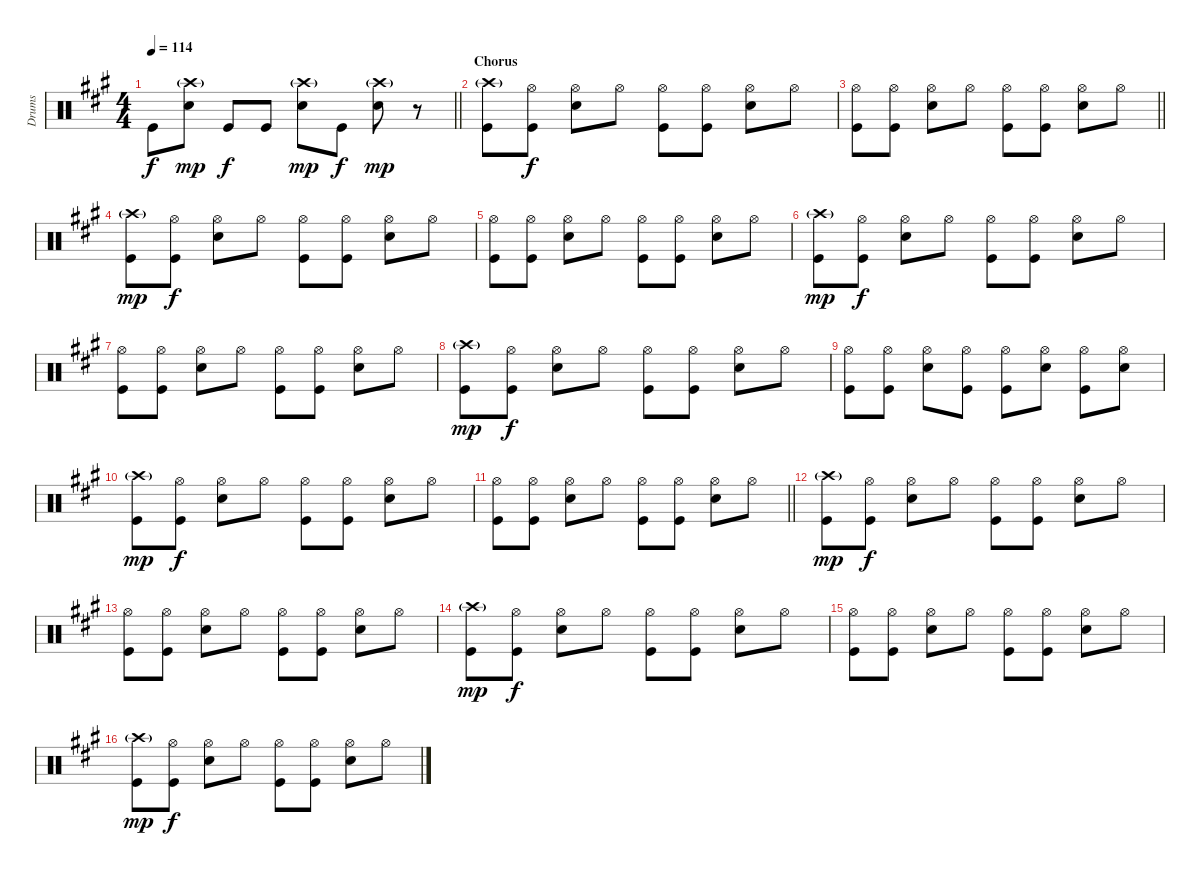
\track ("Drums" "Drums") {instrument percussion}
\staff {score}
\articulation defaults
\ts (4 4)
\tempo 114
\clef neutral
\barLineRight lightlight
\ks f#minor "Kick (hit)".8{dy f}
("Crash high (hit)"{g} "Snare (hit) 2").8{dy mp} "Kick (hit)".8{dy f} "Kick (hit)".8 ("Crash high (hit)"{g} "Snare (hit) 2").8{dy mp} "Kick (hit)".8{dy f} ("Crash high (hit)"{g} "Snare (hit) 2").8{dy mp} r.8 |
\section ("" "Chorus")
("Crash high (hit)"{g} "Kick (hit)").8{volume 16} ("Hi-Hat (open)" "Kick (hit)").8{dy f} ("Hi-Hat (open)" "Snare (hit) 2").8 "Hi-Hat (open)".8 ("Hi-Hat (open)" "Kick (hit)").8 ("Hi-Hat (open)" "Kick (hit)").8 ("Hi-Hat (open)" "Snare (hit) 2").8 "Hi-Hat (open)".8 |
\barLineRight lightlight
("Hi-Hat (open)" "Kick (hit)").8 ("Hi-Hat (open)" "Kick (hit)").8 ("Hi-Hat (open)" "Snare (hit) 2").8 "Hi-Hat (open)".8 ("Hi-Hat (open)" "Kick (hit)").8 ("Hi-Hat (open)" "Kick (hit)").8 ("Hi-Hat (open)" "Snare (hit) 2").8 "Hi-Hat (open)".8 |
("Crash high (hit)"{g} "Kick (hit)").8{dy mp} ("Hi-Hat (open)" "Kick (hit)").8{dy f} ("Hi-Hat (open)" "Snare (hit) 2").8 "Hi-Hat (open)".8 ("Hi-Hat (open)" "Kick (hit)").8 ("Hi-Hat (open)" "Kick (hit)").8 ("Hi-Hat (open)" "Snare (hit) 2").8 "Hi-Hat (open)".8 |
("Hi-Hat (open)" "Kick (hit)").8 ("Hi-Hat (open)" "Kick (hit)").8 ("Hi-Hat (open)" "Snare (hit) 2").8 "Hi-Hat (open)".8 ("Hi-Hat (open)" "Kick (hit)").8 ("Hi-Hat (open)" "Kick (hit)").8 ("Hi-Hat (open)" "Snare (hit) 2").8 "Hi-Hat (open)".8 |
("Crash high (hit)"{g} "Kick (hit)").8{dy mp} ("Hi-Hat (open)" "Kick (hit)").8{dy f} ("Hi-Hat (open)" "Snare (hit) 2").8 "Hi-Hat (open)".8 ("Hi-Hat (open)" "Kick (hit)").8 ("Hi-Hat (open)" "Kick (hit)").8 ("Hi-Hat (open)" "Snare (hit) 2").8 "Hi-Hat (open)".8 |
("Hi-Hat (open)" "Kick (hit)").8 ("Hi-Hat (open)" "Kick (hit)").8 ("Hi-Hat (open)" "Snare (hit) 2").8 "Hi-Hat (open)".8 ("Hi-Hat (open)" "Kick (hit)").8 ("Hi-Hat (open)" "Kick (hit)").8 ("Hi-Hat (open)" "Snare (hit) 2").8 "Hi-Hat (open)".8 |
("Crash high (hit)"{g} "Kick (hit)").8{dy mp} ("Hi-Hat (open)" "Kick (hit)").8{dy f} ("Hi-Hat (open)" "Snare (hit) 2").8 "Hi-Hat (open)".8 ("Hi-Hat (open)" "Kick (hit)").8 ("Hi-Hat (open)" "Kick (hit)").8 ("Hi-Hat (open)" "Snare (hit) 2").8 "Hi-Hat (open)".8 |
("Hi-Hat (open)" "Kick (hit)").8 ("Hi-Hat (open)" "Kick (hit)").8 ("Hi-Hat (open)" "Snare (hit) 2").8 ("Hi-Hat (open)" "Kick (hit)").8 ("Hi-Hat (open)" "Kick (hit)").8 ("Hi-Hat (open)" "Snare (hit) 2").8 ("Hi-Hat (open)" "Kick (hit)").8 ("Hi-Hat (open)" "Snare (hit) 2").8 |
("Crash high (hit)"{g} "Kick (hit)").8{dy mp} ("Hi-Hat (open)" "Kick (hit)").8{dy f} ("Hi-Hat (open)" "Snare (hit) 2").8 "Hi-Hat (open)".8 ("Hi-Hat (open)" "Kick (hit)").8 ("Hi-Hat (open)" "Kick (hit)").8 ("Hi-Hat (open)" "Snare (hit) 2").8 "Hi-Hat (open)".8 |
\barLineRight lightlight
("Hi-Hat (open)" "Kick (hit)").8 ("Hi-Hat (open)" "Kick (hit)").8 ("Hi-Hat (open)" "Snare (hit) 2").8 "Hi-Hat (open)".8 ("Hi-Hat (open)" "Kick (hit)").8 ("Hi-Hat (open)" "Kick (hit)").8 ("Hi-Hat (open)" "Snare (hit) 2").8 "Hi-Hat (open)".8 |
("Crash high (hit)"{g} "Kick (hit)").8{dy mp} ("Hi-Hat (open)" "Kick (hit)").8{dy f} ("Hi-Hat (open)" "Snare (hit) 2").8 "Hi-Hat (open)".8 ("Hi-Hat (open)" "Kick (hit)").8 ("Hi-Hat (open)" "Kick (hit)").8 ("Hi-Hat (open)" "Snare (hit) 2").8 "Hi-Hat (open)".8 |
("Hi-Hat (open)" "Kick (hit)").8 ("Hi-Hat (open)" "Kick (hit)").8 ("Hi-Hat (open)" "Snare (hit) 2").8 "Hi-Hat (open)".8 ("Hi-Hat (open)" "Kick (hit)").8 ("Hi-Hat (open)" "Kick (hit)").8 ("Hi-Hat (open)" "Snare (hit) 2").8 "Hi-Hat (open)".8 |
("Crash high (hit)"{g} "Kick (hit)").8{dy mp} ("Hi-Hat (open)" "Kick (hit)").8{dy f} ("Hi-Hat (open)" "Snare (hit) 2").8 "Hi-Hat (open)".8 ("Hi-Hat (open)" "Kick (hit)").8 ("Hi-Hat (open)" "Kick (hit)").8 ("Hi-Hat (open)" "Snare (hit) 2").8 "Hi-Hat (open)".8 |
("Hi-Hat (open)" "Kick (hit)").8 ("Hi-Hat (open)" "Kick (hit)").8 ("Hi-Hat (open)" "Snare (hit) 2").8 "Hi-Hat (open)".8 ("Hi-Hat (open)" "Kick (hit)").8 ("Hi-Hat (open)" "Kick (hit)").8 ("Hi-Hat (open)" "Snare (hit) 2").8 "Hi-Hat (open)".8 |
("Crash high (hit)"{g} "Kick (hit)").8{dy mp} ("Hi-Hat (open)" "Kick (hit)").8{dy f} ("Hi-Hat (open)" "Snare (hit) 2").8 "Hi-Hat (open)".8 ("Hi-Hat (open)" "Kick (hit)").8 ("Hi-Hat (open)" "Kick (hit)").8 ("Hi-Hat (open)" "Snare (hit) 2").8 "Hi-Hat (open)".8
